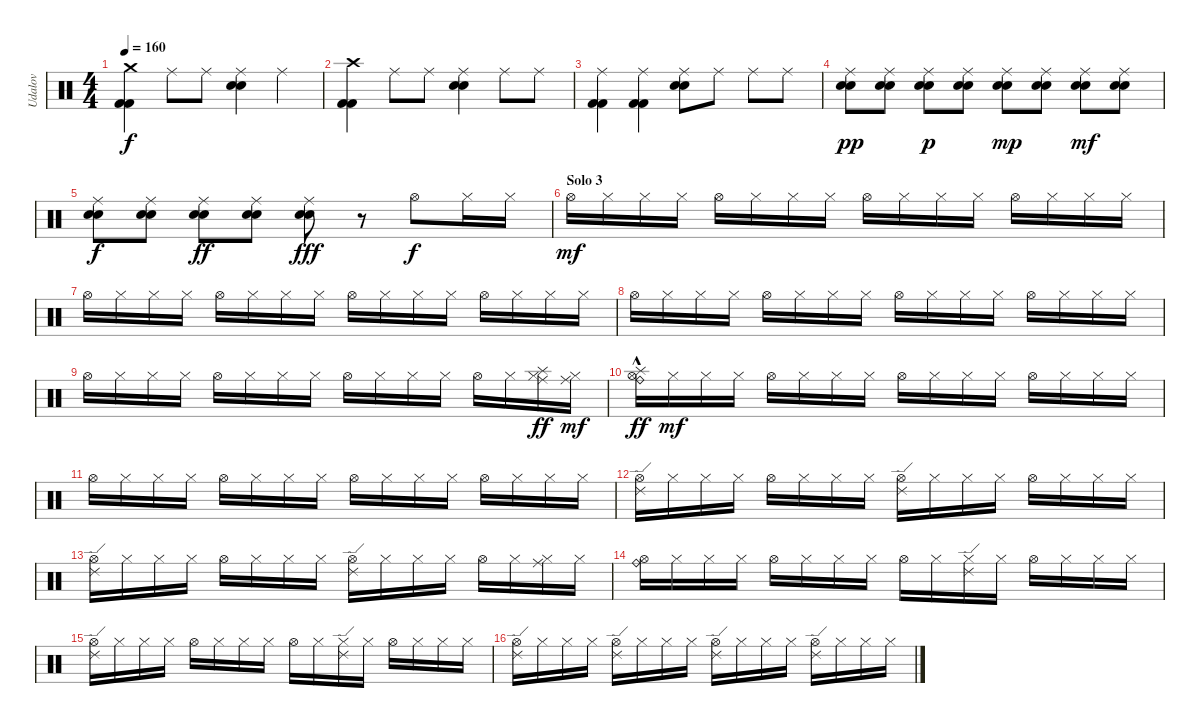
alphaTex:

\track ("Udalov" "Udalov") {instrument percussion}
\staff {score}
\articulation defaults
\ts (4 4)
\tempo 160
\clef neutral
\ks c
("Crash medium (hit)" "Kick (hit) 2" "Kick (hit) 2").4{dy f} "Ride (middle)".8 "Ride (middle)".8 ("Ride (middle)" "Electric Snare (hit)" "Electric Snare (hit)").4 "Ride (middle)".4 |
("Crash high (hit)" "Kick (hit) 2" "Kick (hit) 2").4 "Ride (middle)".8 "Ride (middle)".8 ("Ride (middle)" "Electric Snare (hit)" "Electric Snare (hit)").4 "Ride (middle)".8 "Ride (middle)".8 |
("Ride (middle)" "Kick (hit) 2" "Kick (hit) 2").4 ("Ride (middle)" "Kick (hit) 2" "Kick (hit) 2").4 ("Ride (middle)" "Electric Snare (hit)" "Electric Snare (hit)").8 "Ride (middle)".8 "Ride (middle)".8 "Ride (middle)".8 |
("Ride (middle)" "Electric Snare (hit)" "Electric Snare (hit)").8{dy pp} ("Ride (middle)" "Electric Snare (hit)" "Electric Snare (hit)").8 ("Ride (middle)" "Electric Snare (hit)" "Electric Snare (hit)").8{dy p} ("Ride (middle)" "Electric Snare (hit)" "Electric Snare (hit)").8 ("Ride (middle)" "Electric Snare (hit)" "Electric Snare (hit)").8{dy mp} ("Ride (middle)" "Electric Snare (hit)" "Electric Snare (hit)").8 ("Ride (middle)" "Electric Snare (hit)" "Electric Snare (hit)").8{dy mf} ("Ride (middle)" "Electric Snare (hit)" "Electric Snare (hit)").8 |
("Ride (middle)" "Electric Snare (hit)" "Electric Snare (hit)").8{dy f} ("Ride (middle)" "Electric Snare (hit)" "Electric Snare (hit)").8 ("Ride (middle)" "Electric Snare (hit)" "Electric Snare (hit)").8{dy ff} ("Ride (middle)" "Electric Snare (hit)" "Electric Snare (hit)").8 ("Ride (middle)" "Electric Snare (hit)" "Electric Snare (hit)").8{dy fff} r.8 "Hi-Hat (open)".8{dy f} "Hi-Hat (closed)".16 "Hi-Hat (closed)".16 |
\section ("" "Solo 3")
"Hi-Hat (open)".16{dy mf} "Hi-Hat (closed)".16 "Hi-Hat (closed)".16 "Hi-Hat (closed)".16 "Hi-Hat (open)".16 "Hi-Hat (closed)".16 "Hi-Hat (closed)".16 "Hi-Hat (closed)".16 "Hi-Hat (open)".16 "Hi-Hat (closed)".16 "Hi-Hat (closed)".16 "Hi-Hat (closed)".16 "Hi-Hat (open)".16 "Hi-Hat (closed)".16 "Hi-Hat (closed)".16 "Hi-Hat (closed)".16 |
"Hi-Hat (open)".16 "Hi-Hat (closed)".16 "Hi-Hat (closed)".16 "Hi-Hat (closed)".16 "Hi-Hat (open)".16 "Hi-Hat (closed)".16 "Hi-Hat (closed)".16 "Hi-Hat (closed)".16 "Hi-Hat (open)".16 "Hi-Hat (closed)".16 "Hi-Hat (closed)".16 "Hi-Hat (closed)".16 "Hi-Hat (open)".16 "Hi-Hat (closed)".16 "Hi-Hat (closed)".16 "Hi-Hat (closed)".16 |
"Hi-Hat (open)".16 "Hi-Hat (closed)".16 "Hi-Hat (closed)".16 "Hi-Hat (closed)".16 "Hi-Hat (open)".16 "Hi-Hat (closed)".16 "Hi-Hat (closed)".16 "Hi-Hat (closed)".16 "Hi-Hat (open)".16 "Hi-Hat (closed)".16 "Hi-Hat (closed)".16 "Hi-Hat (closed)".16 "Hi-Hat (open)".16 "Hi-Hat (closed)".16 "Hi-Hat (closed)".16 "Hi-Hat (closed)".16 |
"Hi-Hat (open)".16 "Hi-Hat (closed)".16 "Hi-Hat (closed)".16 "Hi-Hat (closed)".16 "Hi-Hat (open)".16 "Hi-Hat (closed)".16 "Hi-Hat (closed)".16 "Hi-Hat (closed)".16 "Hi-Hat (open)".16 "Hi-Hat (closed)".16 "Hi-Hat (closed)".16 "Hi-Hat (closed)".16 "Hi-Hat (open)".16 "Hi-Hat (closed)".16 ("Hi-Hat (closed)" "Ride (middle)" "Splash (hit)").16{dy ff} ("Hi-Hat (closed)" "Ride (middle)").16{dy mf} |
("Hi-Hat (open)" "Ride (bell)" "Splash (hit)"{hac}).16{dy ff} "Hi-Hat (closed)".16{dy mf} "Hi-Hat (closed)".16 "Hi-Hat (closed)".16 "Hi-Hat (open)".16 "Hi-Hat (closed)".16 "Hi-Hat (closed)".16 "Hi-Hat (closed)".16 "Hi-Hat (open)".16 "Hi-Hat (closed)".16 "Hi-Hat (closed)".16 "Hi-Hat (closed)".16 "Hi-Hat (open)".16 "Hi-Hat (closed)".16 "Hi-Hat (closed)".16 "Hi-Hat (closed)".16 |
"Hi-Hat (open)".16 "Hi-Hat (closed)".16 "Hi-Hat (closed)".16 "Hi-Hat (closed)".16 "Hi-Hat (open)".16 "Hi-Hat (closed)".16 "Hi-Hat (closed)".16 "Hi-Hat (closed)".16 "Hi-Hat (open)".16 "Hi-Hat (closed)".16 "Hi-Hat (closed)".16 "Hi-Hat (closed)".16 "Hi-Hat (open)".16 "Hi-Hat (closed)".16 "Hi-Hat (closed)".16 "Hi-Hat (closed)".16 |
("Hi-Hat (open)" "Ride (edge) 2").16 "Hi-Hat (closed)".16 "Hi-Hat (closed)".16 "Hi-Hat (closed)".16 "Hi-Hat (open)".16 "Hi-Hat (closed)".16 "Hi-Hat (closed)".16 "Hi-Hat (closed)".16 ("Hi-Hat (open)" "Ride (edge) 2").16 "Hi-Hat (closed)".16 "Hi-Hat (closed)".16 "Hi-Hat (closed)".16 "Hi-Hat (open)".16 "Hi-Hat (closed)".16 "Hi-Hat (closed)".16 "Hi-Hat (closed)".16 |
("Hi-Hat (open)" "Ride (edge) 2").16 "Hi-Hat (closed)".16 "Hi-Hat (closed)".16 "Hi-Hat (closed)".16 "Hi-Hat (open)".16 "Hi-Hat (closed)".16 "Hi-Hat (closed)".16 "Hi-Hat (closed)".16 ("Hi-Hat (open)" "Ride (edge) 2").16 "Hi-Hat (closed)".16 "Hi-Hat (closed)".16 "Hi-Hat (closed)".16 "Hi-Hat (open)".16 "Hi-Hat (closed)".16 ("Hi-Hat (closed)" "Ride (middle)").16 "Hi-Hat (closed)".16 |
("Hi-Hat (open)" "Ride (bell)").16 "Hi-Hat (closed)".16 "Hi-Hat (closed)".16 "Hi-Hat (closed)".16 "Hi-Hat (open)".16 "Hi-Hat (closed)".16 "Hi-Hat (closed)".16 "Hi-Hat (closed)".16 "Hi-Hat (open)".16 "Hi-Hat (closed)".16 ("Hi-Hat (closed)" "Ride (edge) 2").16 "Hi-Hat (closed)".16 "Hi-Hat (open)".16 "Hi-Hat (closed)".16 "Hi-Hat (closed)".16 "Hi-Hat (closed)".16 |
("Hi-Hat (open)" "Ride (edge) 2").16 "Hi-Hat (closed)".16 "Hi-Hat (closed)".16 "Hi-Hat (closed)".16 "Hi-Hat (open)".16 "Hi-Hat (closed)".16 "Hi-Hat (closed)".16 "Hi-Hat (closed)".16 "Hi-Hat (open)".16 "Hi-Hat (closed)".16 ("Hi-Hat (closed)" "Ride (edge) 2").16 "Hi-Hat (closed)".16 "Hi-Hat (open)".16 "Hi-Hat (closed)".16 "Hi-Hat (closed)".16 "Hi-Hat (closed)".16 |
("Hi-Hat (open)" "Ride (edge) 2").16 "Hi-Hat (closed)".16 "Hi-Hat (closed)".16 "Hi-Hat (closed)".16 ("Hi-Hat (open)" "Ride (edge) 2").16 "Hi-Hat (closed)".16 "Hi-Hat (closed)".16 "Hi-Hat (closed)".16 ("Hi-Hat (open)" "Ride (edge) 2").16 "Hi-Hat (closed)".16 "Hi-Hat (closed)".16 "Hi-Hat (closed)".16 ("Hi-Hat (open)" "Ride (edge) 2").16 "Hi-Hat (closed)".16 "Hi-Hat (closed)".16 "Hi-Hat (closed)".16
